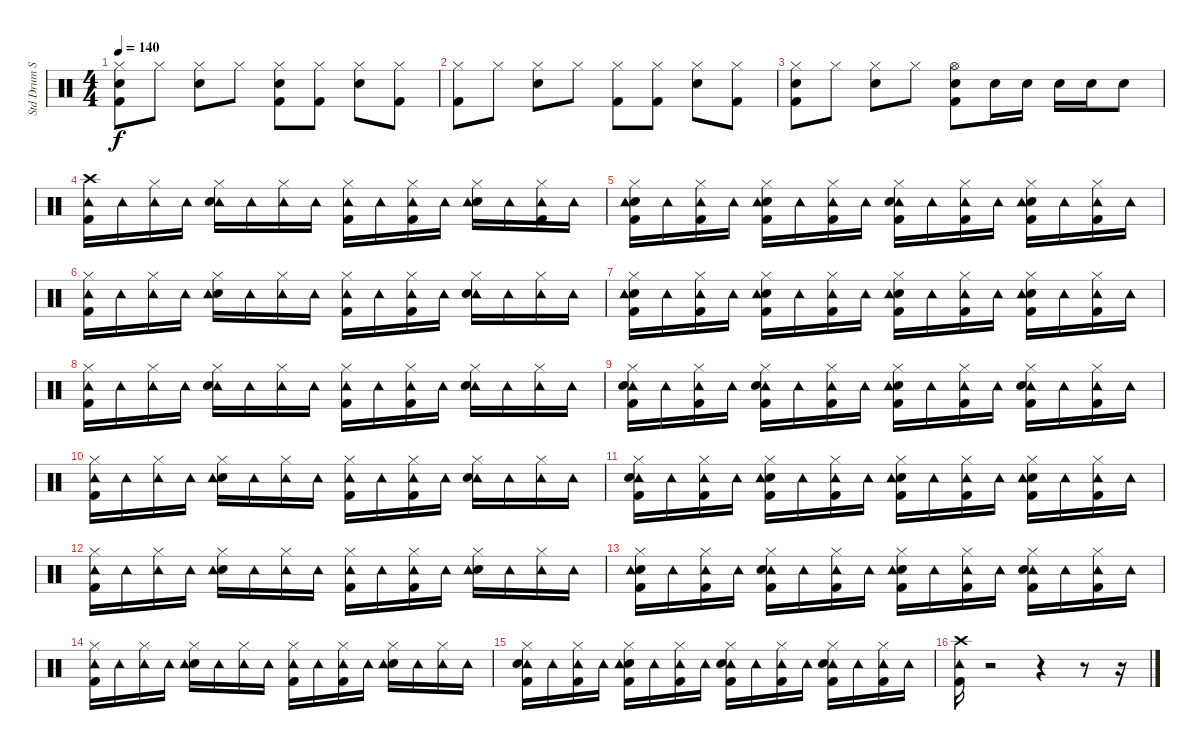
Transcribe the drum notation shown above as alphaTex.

\track ("Std Drum Set" "Std Drum S") {instrument percussion}
\staff {score}
\articulation defaults
\ts (4 4)
\tempo 140
\clef neutral
\ks c
("Snare (hit) 2" "Hi-Hat (closed)" "Kick (hit) 2").8{dy f} "Hi-Hat (closed)".8 ("Hi-Hat (closed)" "Snare (hit) 2").8 "Hi-Hat (closed)".8 ("Snare (hit) 2" "Hi-Hat (closed)" "Kick (hit) 2").8 ("Kick (hit) 2" "Hi-Hat (closed)").8 ("Hi-Hat (closed)" "Snare (hit) 2").8 ("Kick (hit) 2" "Hi-Hat (closed)").8 |
("Kick (hit) 2" "Hi-Hat (closed)").8 "Hi-Hat (closed)".8 ("Snare (hit) 2" "Hi-Hat (closed)").8 "Hi-Hat (closed)".8 ("Kick (hit) 2" "Hi-Hat (closed)").8 ("Hi-Hat (closed)" "Kick (hit) 2").8 ("Snare (hit) 2" "Hi-Hat (closed)").8 ("Hi-Hat (closed)" "Kick (hit) 2").8 |
("Hi-Hat (closed)" "Snare (hit) 2" "Kick (hit) 2").8 "Hi-Hat (closed)".8 ("Snare (hit) 2" "Hi-Hat (closed)").8 "Hi-Hat (closed)".8 ("Hi-Hat (open)" "Kick (hit) 2" "Snare (hit) 2").8 "Snare (hit) 2".16 "Snare (hit) 2".16 "Snare (hit) 2".16 "Snare (hit) 2".16 "Snare (hit) 2".8 |
("Tambourine (hit)" "Kick (hit) 2" "Crash high (hit)").16 "Tambourine (hit)".16 ("Tambourine (hit)" "Hi-Hat (closed)").16 "Tambourine (hit)".16 ("Tambourine (hit)" "Snare (hit) 2" "Hi-Hat (closed)").16 "Tambourine (hit)".16 ("Hi-Hat (closed)" "Tambourine (hit)").16 "Tambourine (hit)".16 ("Tambourine (hit)" "Hi-Hat (closed)" "Kick (hit) 2").16 "Tambourine (hit)".16 ("Kick (hit) 2" "Hi-Hat (closed)" "Tambourine (hit)").16 "Tambourine (hit)".16 ("Snare (hit) 2" "Tambourine (hit)" "Hi-Hat (closed)").16 "Tambourine (hit)".16 ("Kick (hit) 2" "Hi-Hat (closed)" "Tambourine (hit)").16 "Tambourine (hit)".16 |
("Snare (hit) 2" "Tambourine (hit)" "Hi-Hat (closed)" "Kick (hit) 2").16 "Tambourine (hit)".16 ("Hi-Hat (closed)" "Tambourine (hit)" "Kick (hit) 2").16 "Tambourine (hit)".16 ("Kick (hit) 2" "Hi-Hat (closed)" "Snare (hit) 2" "Tambourine (hit)").16 "Tambourine (hit)".16 ("Tambourine (hit)" "Hi-Hat (closed)" "Kick (hit) 2").16 "Tambourine (hit)".16 ("Hi-Hat (closed)" "Tambourine (hit)" "Kick (hit) 2" "Snare (hit) 2").16 "Tambourine (hit)".16 ("Tambourine (hit)" "Hi-Hat (closed)" "Kick (hit) 2").16 "Tambourine (hit)".16 ("Snare (hit) 2" "Tambourine (hit)" "Hi-Hat (closed)" "Kick (hit) 2").16 "Tambourine (hit)".16 ("Kick (hit) 2" "Hi-Hat (closed)" "Tambourine (hit)").16 "Tambourine (hit)".16 |
("Kick (hit) 2" "Tambourine (hit)" "Hi-Hat (closed)").16 "Tambourine (hit)".16 ("Hi-Hat (closed)" "Tambourine (hit)").16 "Tambourine (hit)".16 ("Snare (hit) 2" "Tambourine (hit)" "Hi-Hat (closed)").16 "Tambourine (hit)".16 ("Tambourine (hit)" "Hi-Hat (closed)").16 "Tambourine (hit)".16 ("Tambourine (hit)" "Kick (hit) 2" "Hi-Hat (closed)").16 "Tambourine (hit)".16 ("Hi-Hat (closed)" "Kick (hit) 2" "Tambourine (hit)").16 "Tambourine (hit)".16 ("Hi-Hat (closed)" "Tambourine (hit)" "Snare (hit) 2").16 "Tambourine (hit)".16 ("Tambourine (hit)" "Hi-Hat (closed)").16 "Tambourine (hit)".16 |
("Hi-Hat (closed)" "Snare (hit) 2" "Tambourine (hit)" "Kick (hit) 2").16 "Tambourine (hit)".16 ("Kick (hit) 2" "Tambourine (hit)" "Hi-Hat (closed)").16 "Tambourine (hit)".16 ("Snare (hit) 2" "Kick (hit) 2" "Tambourine (hit)" "Hi-Hat (closed)").16 "Tambourine (hit)".16 ("Kick (hit) 2" "Tambourine (hit)" "Hi-Hat (closed)").16 "Tambourine (hit)".16 ("Hi-Hat (closed)" "Kick (hit) 2" "Snare (hit) 2" "Tambourine (hit)").16 "Tambourine (hit)".16 ("Kick (hit) 2" "Hi-Hat (closed)" "Tambourine (hit)").16 "Tambourine (hit)".16 ("Hi-Hat (closed)" "Snare (hit) 2" "Kick (hit) 2" "Tambourine (hit)").16 "Tambourine (hit)".16 ("Tambourine (hit)" "Hi-Hat (closed)" "Kick (hit) 2").16 "Tambourine (hit)".16 |
("Hi-Hat (closed)" "Tambourine (hit)" "Kick (hit) 2").16 "Tambourine (hit)".16 ("Hi-Hat (closed)" "Tambourine (hit)").16 "Tambourine (hit)".16 ("Hi-Hat (closed)" "Tambourine (hit)" "Snare (hit) 2").16 "Tambourine (hit)".16 ("Tambourine (hit)" "Hi-Hat (closed)").16 "Tambourine (hit)".16 ("Tambourine (hit)" "Hi-Hat (closed)" "Kick (hit) 2").16 "Tambourine (hit)".16 ("Kick (hit) 2" "Hi-Hat (closed)" "Tambourine (hit)").16 "Tambourine (hit)".16 ("Tambourine (hit)" "Snare (hit) 2" "Hi-Hat (closed)").16 "Tambourine (hit)".16 ("Tambourine (hit)" "Hi-Hat (closed)").16 "Tambourine (hit)".16 |
("Tambourine (hit)" "Snare (hit) 2" "Hi-Hat (closed)" "Kick (hit) 2").16 "Tambourine (hit)".16 ("Tambourine (hit)" "Kick (hit) 2" "Hi-Hat (closed)").16 "Tambourine (hit)".16 ("Tambourine (hit)" "Kick (hit) 2" "Hi-Hat (closed)" "Snare (hit) 2").16 "Tambourine (hit)".16 ("Kick (hit) 2" "Hi-Hat (closed)" "Tambourine (hit)").16 "Tambourine (hit)".16 ("Snare (hit) 2" "Tambourine (hit)" "Hi-Hat (closed)" "Kick (hit) 2").16 "Tambourine (hit)".16 ("Hi-Hat (closed)" "Tambourine (hit)" "Kick (hit) 2").16 "Tambourine (hit)".16 ("Tambourine (hit)" "Hi-Hat (closed)" "Snare (hit) 2" "Kick (hit) 2").16 "Tambourine (hit)".16 ("Hi-Hat (closed)" "Kick (hit) 2" "Tambourine (hit)").16 "Tambourine (hit)".16 |
("Kick (hit) 2" "Hi-Hat (closed)" "Tambourine (hit)").16 "Tambourine (hit)".16 ("Tambourine (hit)" "Hi-Hat (closed)").16 "Tambourine (hit)".16 ("Hi-Hat (closed)" "Snare (hit) 2" "Tambourine (hit)").16 "Tambourine (hit)".16 ("Hi-Hat (closed)" "Tambourine (hit)").16 "Tambourine (hit)".16 ("Hi-Hat (closed)" "Tambourine (hit)" "Kick (hit) 2").16 "Tambourine (hit)".16 ("Kick (hit) 2" "Hi-Hat (closed)" "Tambourine (hit)").16 "Tambourine (hit)".16 ("Tambourine (hit)" "Snare (hit) 2" "Hi-Hat (closed)").16 "Tambourine (hit)".16 ("Tambourine (hit)" "Hi-Hat (closed)").16 "Tambourine (hit)".16 |
("Tambourine (hit)" "Snare (hit) 2" "Kick (hit) 2" "Hi-Hat (closed)").16 "Tambourine (hit)".16 ("Kick (hit) 2" "Hi-Hat (closed)" "Tambourine (hit)").16 "Tambourine (hit)".16 ("Snare (hit) 2" "Hi-Hat (closed)" "Tambourine (hit)" "Kick (hit) 2").16 "Tambourine (hit)".16 ("Tambourine (hit)" "Hi-Hat (closed)" "Kick (hit) 2").16 "Tambourine (hit)".16 ("Kick (hit) 2" "Snare (hit) 2" "Tambourine (hit)" "Hi-Hat (closed)").16 "Tambourine (hit)".16 ("Kick (hit) 2" "Hi-Hat (closed)" "Tambourine (hit)").16 "Tambourine (hit)".16 ("Hi-Hat (closed)" "Kick (hit) 2" "Snare (hit) 2" "Tambourine (hit)").16 "Tambourine (hit)".16 ("Hi-Hat (closed)" "Kick (hit) 2" "Tambourine (hit)").16 "Tambourine (hit)".16 |
("Tambourine (hit)" "Kick (hit) 2" "Hi-Hat (closed)").16 "Tambourine (hit)".16 ("Hi-Hat (closed)" "Tambourine (hit)").16 "Tambourine (hit)".16 ("Snare (hit) 2" "Hi-Hat (closed)" "Tambourine (hit)").16 "Tambourine (hit)".16 ("Tambourine (hit)" "Hi-Hat (closed)").16 "Tambourine (hit)".16 ("Kick (hit) 2" "Hi-Hat (closed)" "Tambourine (hit)").16 "Tambourine (hit)".16 ("Tambourine (hit)" "Kick (hit) 2" "Hi-Hat (closed)").16 "Tambourine (hit)".16 ("Hi-Hat (closed)" "Snare (hit) 2" "Tambourine (hit)").16 "Tambourine (hit)".16 ("Tambourine (hit)" "Hi-Hat (closed)").16 "Tambourine (hit)".16 |
("Hi-Hat (closed)" "Snare (hit) 2" "Kick (hit) 2" "Tambourine (hit)").16 "Tambourine (hit)".16 ("Hi-Hat (closed)" "Kick (hit) 2" "Tambourine (hit)").16 "Tambourine (hit)".16 ("Tambourine (hit)" "Hi-Hat (closed)" "Kick (hit) 2" "Snare (hit) 2").16 "Tambourine (hit)".16 ("Tambourine (hit)" "Hi-Hat (closed)" "Kick (hit) 2").16 "Tambourine (hit)".16 ("Snare (hit) 2" "Tambourine (hit)" "Hi-Hat (closed)" "Kick (hit) 2").16 "Tambourine (hit)".16 ("Tambourine (hit)" "Kick (hit) 2" "Hi-Hat (closed)").16 "Tambourine (hit)".16 ("Hi-Hat (closed)" "Tambourine (hit)" "Kick (hit) 2" "Snare (hit) 2").16 "Tambourine (hit)".16 ("Tambourine (hit)" "Hi-Hat (closed)" "Kick (hit) 2").16 "Tambourine (hit)".16 |
("Hi-Hat (closed)" "Kick (hit) 2" "Tambourine (hit)").16 "Tambourine (hit)".16 ("Tambourine (hit)" "Hi-Hat (closed)").16 "Tambourine (hit)".16 ("Snare (hit) 2" "Hi-Hat (closed)" "Tambourine (hit)").16 "Tambourine (hit)".16 ("Hi-Hat (closed)" "Tambourine (hit)").16 "Tambourine (hit)".16 ("Kick (hit) 2" "Tambourine (hit)" "Hi-Hat (closed)").16 "Tambourine (hit)".16 ("Kick (hit) 2" "Hi-Hat (closed)" "Tambourine (hit)").16 "Tambourine (hit)".16 ("Hi-Hat (closed)" "Snare (hit) 2" "Tambourine (hit)").16 "Tambourine (hit)".16 ("Tambourine (hit)" "Hi-Hat (closed)").16 "Tambourine (hit)".16 |
("Tambourine (hit)" "Snare (hit) 2" "Hi-Hat (closed)" "Kick (hit) 2").16 "Tambourine (hit)".16 ("Tambourine (hit)" "Kick (hit) 2" "Hi-Hat (closed)").16 "Tambourine (hit)".16 ("Kick (hit) 2" "Snare (hit) 2" "Hi-Hat (closed)" "Tambourine (hit)").16 "Tambourine (hit)".16 ("Kick (hit) 2" "Hi-Hat (closed)" "Tambourine (hit)").16 "Tambourine (hit)".16 ("Hi-Hat (closed)" "Tambourine (hit)" "Snare (hit) 2" "Kick (hit) 2").16 "Tambourine (hit)".16 ("Hi-Hat (closed)" "Tambourine (hit)" "Kick (hit) 2").16 "Tambourine (hit)".16 ("Kick (hit) 2" "Hi-Hat (closed)" "Tambourine (hit)" "Snare (hit) 2").16 "Tambourine (hit)".16 ("Tambourine (hit)" "Kick (hit) 2" "Hi-Hat (closed)").16 "Tambourine (hit)".16 |
("Crash high (hit)" "Kick (hit) 2" "Tambourine (hit)").16 r.2 r.4 r.8 r.16
